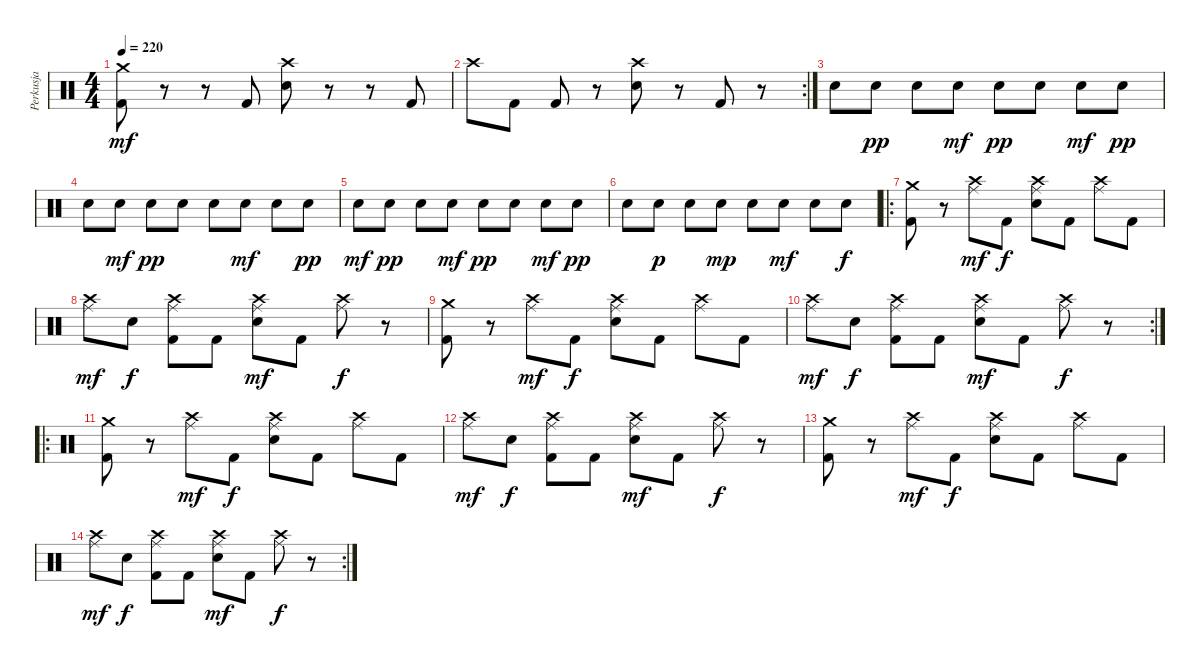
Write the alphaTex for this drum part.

\track ("Perkusja" "Perkusja") {instrument percussion}
\staff {score}
\articulation defaults
\ts (4 4)
\tempo 220
\clef neutral
\ks c
("Crash medium (hit)" "Kick (hit) 2").8{dy mf} r.8 r.8 "Kick (hit) 2".8 ("Crash high (hit)" "Snare (hit) 2").8 r.8 r.8 "Kick (hit) 2".8 |
\rc 2 "Crash high (hit)".8 "Kick (hit) 2".8 "Kick (hit) 2".8
r.8 ("Crash high (hit)" "Snare (hit) 2").8 r.8 "Kick (hit) 2".8 r.8 |
"Snare (hit) 2".8 "Snare (hit) 2".8{dy pp} "Snare (hit) 2".8 "Snare (hit) 2".8{dy mf} "Snare (hit) 2".8{dy pp} "Snare (hit) 2".8 "Snare (hit) 2".8{dy mf} "Snare (hit) 2".8{dy pp} |
"Snare (hit) 2".8 "Snare (hit) 2".8{dy mf} "Snare (hit) 2".8{dy pp} "Snare (hit) 2".8 "Snare (hit) 2".8 "Snare (hit) 2".8{dy mf} "Snare (hit) 2".8 "Snare (hit) 2".8{dy pp} |
"Snare (hit) 2".8{dy mf} "Snare (hit) 2".8{dy pp} "Snare (hit) 2".8 "Snare (hit) 2".8{dy mf} "Snare (hit) 2".8{dy pp} "Snare (hit) 2".8 "Snare (hit) 2".8{dy mf} "Snare (hit) 2".8{dy pp} |
"Snare (hit) 2".8 "Snare (hit) 2".8{dy p} "Snare (hit) 2".8 "Snare (hit) 2".8{dy mp} "Snare (hit) 2".8 "Snare (hit) 2".8{dy mf} "Snare (hit) 2".8 "Snare (hit) 2".8{dy f} |
\ro
("Crash medium (hit)" "Kick (hit) 2").8 r.8 ("Crash high (hit)" "Ride (middle)").8{dy mf} "Kick (hit) 2".8{dy f} ("Crash high (hit)" "Snare (hit) 2" "Ride (middle)").8 "Kick (hit) 2".8 ("Crash high (hit)" "Ride (middle)").8 "Kick (hit) 2".8 |
("Crash high (hit)" "Ride (middle)").8{dy mf} "Snare (hit) 2".8{dy f} ("Crash high (hit)" "Kick (hit) 2" "Ride (middle)").8 "Kick (hit) 2".8 ("Crash high (hit)" "Snare (hit) 2" "Ride (middle)").8{dy mf} "Kick (hit) 2".8 ("Crash high (hit)" "Ride (middle)").8{dy f} r.8 |
("Crash medium (hit)" "Kick (hit) 2").8 r.8 ("Crash high (hit)" "Ride (middle)").8{dy mf} "Kick (hit) 2".8{dy f} ("Crash high (hit)" "Snare (hit) 2" "Ride (middle)").8 "Kick (hit) 2".8 ("Crash high (hit)" "Ride (middle)").8 "Kick (hit) 2".8 |
\rc 2
("Crash high (hit)" "Ride (middle)").8{dy mf} "Snare (hit) 2".8{dy f} ("Crash high (hit)" "Kick (hit) 2" "Ride (middle)").8 "Kick (hit) 2".8 ("Crash high (hit)" "Snare (hit) 2" "Ride (middle)").8{dy mf} "Kick (hit) 2".8 ("Crash high (hit)" "Ride (middle)").8{dy f} r.8 |
\ro
("Crash medium (hit)" "Kick (hit) 2").8 r.8 ("Crash high (hit)" "Ride (middle)").8{dy mf} "Kick (hit) 2".8{dy f} ("Crash high (hit)" "Snare (hit) 2" "Ride (middle)").8 "Kick (hit) 2".8 ("Crash high (hit)" "Ride (middle)").8 "Kick (hit) 2".8 |
("Crash high (hit)" "Ride (middle)").8{dy mf} "Snare (hit) 2".8{dy f} ("Crash high (hit)" "Kick (hit) 2" "Ride (middle)").8 "Kick (hit) 2".8 ("Crash high (hit)" "Snare (hit) 2" "Ride (middle)").8{dy mf} "Kick (hit) 2".8 ("Crash high (hit)" "Ride (middle)").8{dy f} r.8 |
("Crash medium (hit)" "Kick (hit) 2").8 r.8 ("Crash high (hit)" "Ride (middle)").8{dy mf} "Kick (hit) 2".8{dy f} ("Crash high (hit)" "Snare (hit) 2" "Ride (middle)").8 "Kick (hit) 2".8 ("Crash high (hit)" "Ride (middle)").8 "Kick (hit) 2".8 |
\rc 2
("Crash high (hit)" "Ride (middle)").8{dy mf} "Snare (hit) 2".8{dy f} ("Crash high (hit)" "Kick (hit) 2" "Ride (middle)").8 "Kick (hit) 2".8 ("Crash high (hit)" "Snare (hit) 2" "Ride (middle)").8{dy mf} "Kick (hit) 2".8 ("Crash high (hit)" "Ride (middle)").8{dy f} r.8
